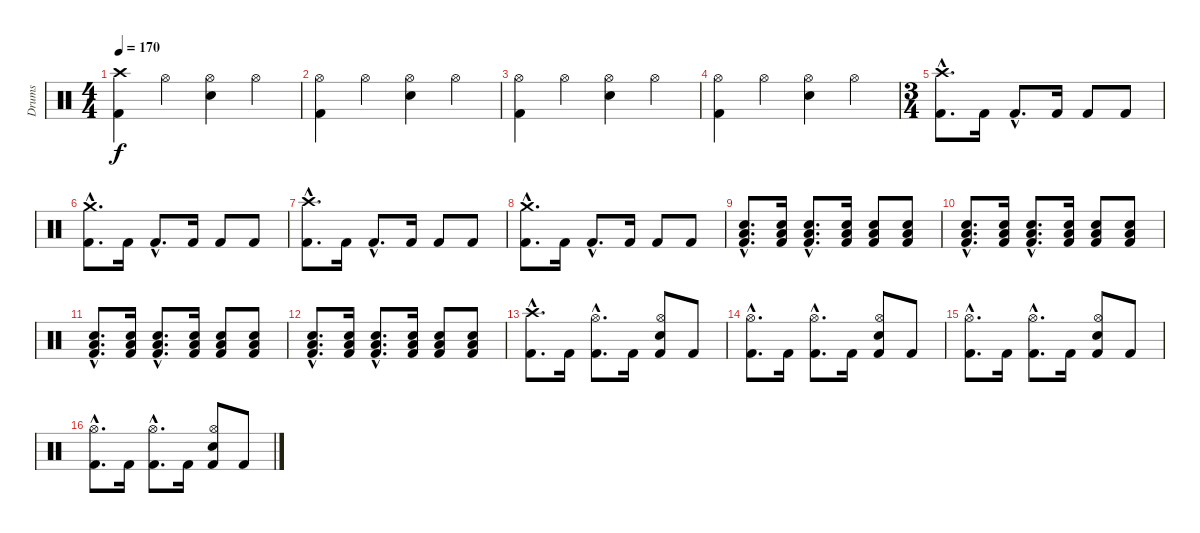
\track ("Drums" "Drums") {instrument percussion}
\staff {score}
\articulation defaults
\ts (4 4)
\tempo 170
\clef neutral
\ks c
("Crash high (hit)" "Kick (hit) 2").4{dy f} "Hi-Hat (open)".4 ("Hi-Hat (open)" "Electric Snare (hit)").4 "Hi-Hat (open)".4 |
("Hi-Hat (open)" "Kick (hit) 2").4 "Hi-Hat (open)".4 ("Hi-Hat (open)" "Electric Snare (hit)").4 "Hi-Hat (open)".4 |
("Hi-Hat (open)" "Kick (hit) 2").4 "Hi-Hat (open)".4 ("Hi-Hat (open)" "Electric Snare (hit)").4 "Hi-Hat (open)".4 |
("Hi-Hat (open)" "Kick (hit) 2").4 "Hi-Hat (open)".4 ("Hi-Hat (open)" "Electric Snare (hit)").4 "Hi-Hat (open)".4 |
\ts (3 4)
("Crash high (hit)"{hac} "Kick (hit) 2"{hac}).8{d} "Kick (hit) 2".16 "Kick (hit) 2"{hac}.8{d} "Kick (hit) 2".16 "Kick (hit) 2".8 "Kick (hit) 2".8 |
("Crash medium (hit)"{hac} "Kick (hit) 2"{hac}).8{d} "Kick (hit) 2".16 "Kick (hit) 2"{hac}.8{d} "Kick (hit) 2".16 "Kick (hit) 2".8 "Kick (hit) 2".8 |
("Crash high (hit)"{hac} "Kick (hit) 2"{hac}).8{d} "Kick (hit) 2".16 "Kick (hit) 2"{hac}.8{d} "Kick (hit) 2".16 "Kick (hit) 2".8 "Kick (hit) 2".8 |
("Crash medium (hit)"{hac} "Kick (hit) 2"{hac}).8{d} "Kick (hit) 2".16 "Kick (hit) 2"{hac}.8{d} "Kick (hit) 2".16 "Kick (hit) 2".8 "Kick (hit) 2".8 |
("Electric Snare (hit)"{hac} "Low Floor Tom (hit)"{hac} "Kick (hit) 2"{hac}).8{d volume 0} ("Electric Snare (hit)" "Low Floor Tom (hit)" "Kick (hit) 2").16{volume 9} ("Electric Snare (hit)"{hac} "Low Floor Tom (hit)"{hac} "Kick (hit) 2"{hac}).8{d} ("Electric Snare (hit)" "Low Floor Tom (hit)" "Kick (hit) 2").16 ("Electric Snare (hit)" "Low Floor Tom (hit)" "Kick (hit) 2").8 ("Electric Snare (hit)" "Low Floor Tom (hit)" "Kick (hit) 2").8 |
("Electric Snare (hit)"{hac} "Low Floor Tom (hit)"{hac} "Kick (hit) 2"{hac}).8{d} ("Electric Snare (hit)" "Low Floor Tom (hit)" "Kick (hit) 2").16 ("Electric Snare (hit)"{hac} "Low Floor Tom (hit)"{hac} "Kick (hit) 2"{hac}).8{d} ("Electric Snare (hit)" "Low Floor Tom (hit)" "Kick (hit) 2").16 ("Electric Snare (hit)" "Low Floor Tom (hit)" "Kick (hit) 2").8 ("Electric Snare (hit)" "Low Floor Tom (hit)" "Kick (hit) 2").8 |
("Electric Snare (hit)"{hac} "Low Floor Tom (hit)"{hac} "Kick (hit) 2"{hac}).8{d volume 16} ("Electric Snare (hit)" "Low Floor Tom (hit)" "Kick (hit) 2").16 ("Electric Snare (hit)"{hac} "Low Floor Tom (hit)"{hac} "Kick (hit) 2"{hac}).8{d} ("Electric Snare (hit)" "Low Floor Tom (hit)" "Kick (hit) 2").16 ("Electric Snare (hit)" "Low Floor Tom (hit)" "Kick (hit) 2").8 ("Electric Snare (hit)" "Low Floor Tom (hit)" "Kick (hit) 2").8 |
("Electric Snare (hit)"{hac} "Low Floor Tom (hit)"{hac} "Kick (hit) 2"{hac}).8{d} ("Electric Snare (hit)" "Low Floor Tom (hit)" "Kick (hit) 2").16 ("Electric Snare (hit)"{hac} "Low Floor Tom (hit)"{hac} "Kick (hit) 2"{hac}).8{d} ("Electric Snare (hit)" "Low Floor Tom (hit)" "Kick (hit) 2").16 ("Electric Snare (hit)" "Low Floor Tom (hit)" "Kick (hit) 2").8 ("Electric Snare (hit)" "Low Floor Tom (hit)" "Kick (hit) 2").8 |
("Crash high (hit)"{hac} "Kick (hit) 2"{hac}).8{d} "Kick (hit) 2".16 ("Hi-Hat (open)"{hac} "Kick (hit) 2"{hac}).8{d} "Kick (hit) 2".16 ("Hi-Hat (open)" "Electric Snare (hit)" "Kick (hit) 2").8 "Kick (hit) 2".8 |
("Hi-Hat (open)"{hac} "Kick (hit) 2"{hac}).8{d} "Kick (hit) 2".16 ("Hi-Hat (open)"{hac} "Kick (hit) 2"{hac}).8{d} "Kick (hit) 2".16 ("Hi-Hat (open)" "Electric Snare (hit)" "Kick (hit) 2").8 "Kick (hit) 2".8 |
("Hi-Hat (open)"{hac} "Kick (hit) 2"{hac}).8{d} "Kick (hit) 2".16 ("Hi-Hat (open)"{hac} "Kick (hit) 2"{hac}).8{d} "Kick (hit) 2".16 ("Hi-Hat (open)" "Electric Snare (hit)" "Kick (hit) 2").8 "Kick (hit) 2".8 |
("Hi-Hat (open)"{hac} "Kick (hit) 2"{hac}).8{d} "Kick (hit) 2".16 ("Hi-Hat (open)"{hac} "Kick (hit) 2"{hac}).8{d} "Kick (hit) 2".16 ("Hi-Hat (open)" "Electric Snare (hit)" "Kick (hit) 2").8 "Kick (hit) 2".8
